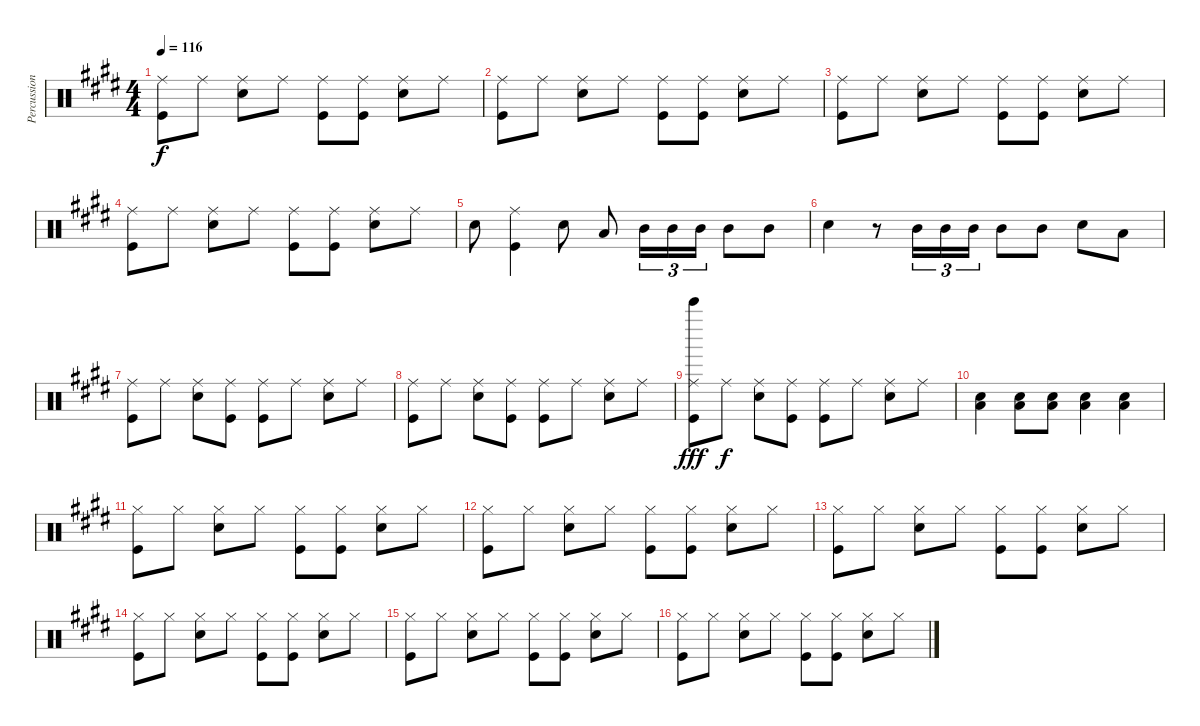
\track ("Percussion" "Percussion") {instrument percussion}
\staff {score}
\articulation defaults
\ts (4 4)
\tempo 116
\clef neutral
\ks e
("Ride (middle)" "Kick (hit)").8{dy f} "Ride (middle)".8 ("Ride (middle)" "Snare (hit) 2").8 "Ride (middle)".8 ("Ride (middle)" "Kick (hit)").8 ("Ride (middle)" "Kick (hit)").8 ("Ride (middle)" "Snare (hit) 2").8 "Ride (middle)".8 |
("Ride (middle)" "Kick (hit)").8 "Ride (middle)".8 ("Ride (middle)" "Snare (hit) 2").8 "Ride (middle)".8 ("Ride (middle)" "Kick (hit)").8 ("Ride (middle)" "Kick (hit)").8 ("Ride (middle)" "Snare (hit) 2").8 "Ride (middle)".8 |
("Ride (middle)" "Kick (hit)").8 "Ride (middle)".8 ("Ride (middle)" "Snare (hit) 2").8 "Ride (middle)".8 ("Ride (middle)" "Kick (hit)").8 ("Ride (middle)" "Kick (hit)").8 ("Ride (middle)" "Snare (hit) 2").8 "Ride (middle)".8 |
("Ride (middle)" "Kick (hit)").8 "Ride (middle)".8 ("Ride (middle)" "Snare (hit) 2").8 "Ride (middle)".8 ("Ride (middle)" "Kick (hit)").8 ("Ride (middle)" "Kick (hit)").8 ("Ride (middle)" "Snare (hit) 2").8 "Ride (middle)".8 |
"Snare (hit) 2".8 ("Ride (middle)" "Kick (hit)").4 "Snare (hit) 2".8 "Low Tom (hit)".8 "Mid Tom (hit)".16{tu (3 2)} "Mid Tom (hit)".16{tu (3 2)} "Mid Tom (hit)".16{tu (3 2)} "Mid Tom (hit)".8 "Mid Tom (hit)".8 |
"Snare (hit) 2".4 r.8 "Mid Tom (hit)".16{tu (3 2)} "Mid Tom (hit)".16{tu (3 2)} "Mid Tom (hit)".16{tu (3 2)} "Mid Tom (hit)".8 "Mid Tom (hit)".8 "Snare (hit) 2".8 "Low Tom (hit)".8 |
("Ride (middle)" "Kick (hit)").8 "Ride (middle)".8 ("Ride (middle)" "Snare (hit) 2").8 ("Ride (middle)" "Kick (hit)").8 ("Ride (middle)" "Kick (hit)").8 "Ride (middle)".8 ("Ride (middle)" "Snare (hit) 2").8 "Ride (middle)".8 |
("Ride (middle)" "Kick (hit)").8 "Ride (middle)".8 ("Ride (middle)" "Snare (hit) 2").8 ("Ride (middle)" "Kick (hit)").8 ("Ride (middle)" "Kick (hit)").8 "Ride (middle)".8 ("Ride (middle)" "Snare (hit) 2").8 "Ride (middle)".8 |
("Ride (middle)" "Bell Tree (hit)" "Kick (hit)").8{dy fff} "Ride (middle)".8{dy f} ("Ride (middle)" "Snare (hit) 2").8 ("Ride (middle)" "Kick (hit)").8 ("Ride (middle)" "Kick (hit)").8 "Ride (middle)".8 ("Ride (middle)" "Snare (hit) 2").8 "Ride (middle)".8 |
("Low Tom (hit)" "Snare (hit) 2").4 ("Low Tom (hit)" "Snare (hit) 2").8 ("Low Tom (hit)" "Snare (hit) 2").8 ("Low Tom (hit)" "Snare (hit) 2").4 ("Low Tom (hit)" "Snare (hit) 2").4 |
("Hi-Hat (closed)" "Kick (hit)").8 "Hi-Hat (closed)".8 ("Hi-Hat (closed)" "Snare (hit) 2").8 "Hi-Hat (closed)".8 ("Hi-Hat (closed)" "Kick (hit)").8 ("Hi-Hat (closed)" "Kick (hit)").8 ("Hi-Hat (closed)" "Snare (hit) 2").8 "Hi-Hat (closed)".8 |
("Hi-Hat (closed)" "Kick (hit)").8 "Hi-Hat (closed)".8 ("Hi-Hat (closed)" "Snare (hit) 2").8 "Hi-Hat (closed)".8 ("Hi-Hat (closed)" "Kick (hit)").8 ("Hi-Hat (closed)" "Kick (hit)").8 ("Hi-Hat (closed)" "Snare (hit) 2").8 "Hi-Hat (closed)".8 |
("Hi-Hat (closed)" "Kick (hit)").8 "Hi-Hat (closed)".8 ("Hi-Hat (closed)" "Snare (hit) 2").8 "Hi-Hat (closed)".8 ("Hi-Hat (closed)" "Kick (hit)").8 ("Hi-Hat (closed)" "Kick (hit)").8 ("Hi-Hat (closed)" "Snare (hit) 2").8 "Hi-Hat (closed)".8 |
("Hi-Hat (closed)" "Kick (hit)").8 "Hi-Hat (closed)".8 ("Hi-Hat (closed)" "Snare (hit) 2").8 "Hi-Hat (closed)".8 ("Hi-Hat (closed)" "Kick (hit)").8 ("Hi-Hat (closed)" "Kick (hit)").8 ("Hi-Hat (closed)" "Snare (hit) 2").8 "Hi-Hat (closed)".8 |
("Hi-Hat (closed)" "Kick (hit)").8 "Hi-Hat (closed)".8 ("Hi-Hat (closed)" "Snare (hit) 2").8 "Hi-Hat (closed)".8 ("Hi-Hat (closed)" "Kick (hit)").8 ("Hi-Hat (closed)" "Kick (hit)").8 ("Hi-Hat (closed)" "Snare (hit) 2").8 "Hi-Hat (closed)".8 |
("Hi-Hat (closed)" "Kick (hit)").8 "Hi-Hat (closed)".8 ("Hi-Hat (closed)" "Snare (hit) 2").8 "Hi-Hat (closed)".8 ("Hi-Hat (closed)" "Kick (hit)").8 ("Hi-Hat (closed)" "Kick (hit)").8 ("Hi-Hat (closed)" "Snare (hit) 2").8 "Hi-Hat (closed)".8
